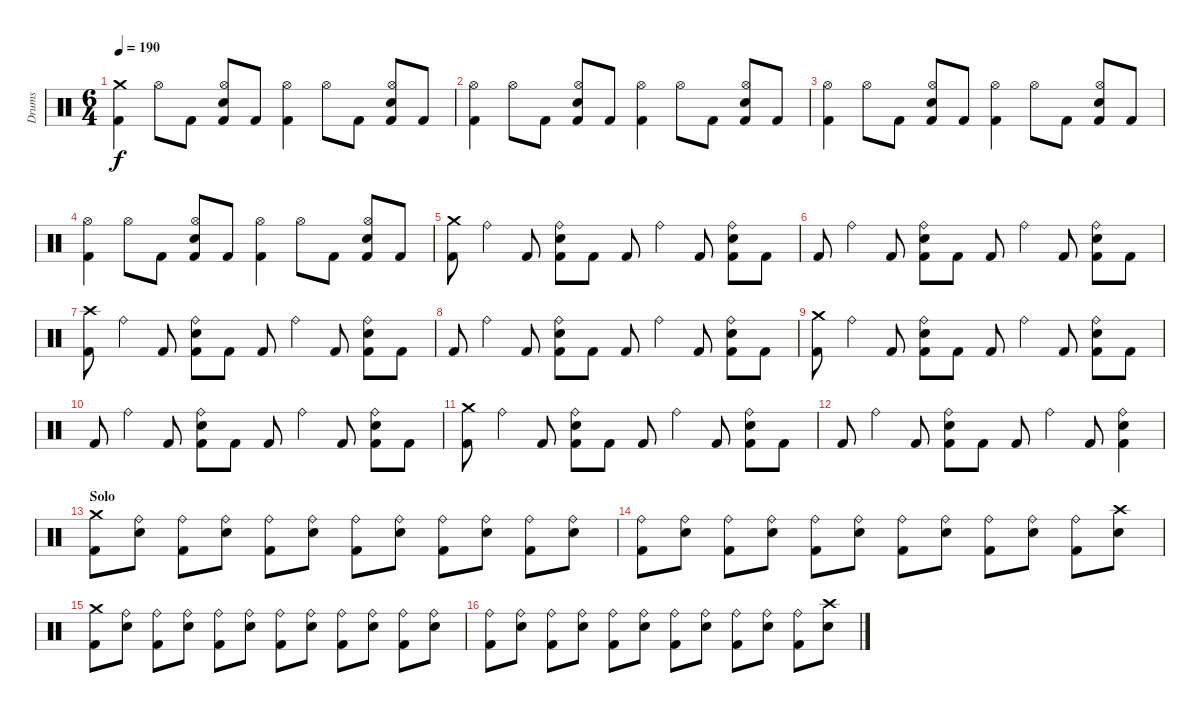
\track ("Drums" "Drums") {instrument percussion}
\staff {score}
\articulation defaults
\ts (6 4)
\tempo 190
\clef neutral
\ks c
("Crash medium (hit)" "Kick (hit) 2").4{dy f} "Hi-Hat (open)".8 "Kick (hit) 2".8 ("Hi-Hat (open)" "Snare (hit) 2" "Kick (hit) 2").8 "Kick (hit) 2".8 ("Hi-Hat (open)" "Kick (hit) 2").4 "Hi-Hat (open)".8 "Kick (hit) 2".8 ("Hi-Hat (open)" "Snare (hit) 2" "Kick (hit) 2").8 "Kick (hit) 2".8 |
("Hi-Hat (open)" "Kick (hit) 2").4 "Hi-Hat (open)".8 "Kick (hit) 2".8 ("Hi-Hat (open)" "Snare (hit) 2" "Kick (hit) 2").8 "Kick (hit) 2".8 ("Hi-Hat (open)" "Kick (hit) 2").4 "Hi-Hat (open)".8 "Kick (hit) 2".8 ("Hi-Hat (open)" "Snare (hit) 2" "Kick (hit) 2").8 "Kick (hit) 2".8 |
("Hi-Hat (open)" "Kick (hit) 2").4 "Hi-Hat (open)".8 "Kick (hit) 2".8 ("Hi-Hat (open)" "Snare (hit) 2" "Kick (hit) 2").8 "Kick (hit) 2".8 ("Hi-Hat (open)" "Kick (hit) 2").4 "Hi-Hat (open)".8 "Kick (hit) 2".8 ("Hi-Hat (open)" "Snare (hit) 2" "Kick (hit) 2").8 "Kick (hit) 2".8 |
("Hi-Hat (open)" "Kick (hit) 2").4 "Hi-Hat (open)".8 "Kick (hit) 2".8 ("Hi-Hat (open)" "Snare (hit) 2" "Kick (hit) 2").8 "Kick (hit) 2".8 ("Hi-Hat (open)" "Kick (hit) 2").4 "Hi-Hat (open)".8 "Kick (hit) 2".8 ("Hi-Hat (open)" "Snare (hit) 2" "Kick (hit) 2").8 "Kick (hit) 2".8 |
("Crash medium (hit)" "Kick (hit) 2").8 "Ride (bell)".4 "Kick (hit) 2".8 ("Ride (bell)" "Snare (hit) 2" "Kick (hit) 2").8 "Kick (hit) 2".8 "Kick (hit) 2".8 "Ride (bell)".4 "Kick (hit) 2".8 ("Ride (bell)" "Snare (hit) 2" "Kick (hit) 2").8 "Kick (hit) 2".8 |
"Kick (hit) 2".8 "Ride (bell)".4 "Kick (hit) 2".8 ("Ride (bell)" "Snare (hit) 2" "Kick (hit) 2").8 "Kick (hit) 2".8 "Kick (hit) 2".8 "Ride (bell)".4 "Kick (hit) 2".8 ("Ride (bell)" "Snare (hit) 2" "Kick (hit) 2").8 "Kick (hit) 2".8 |
("Crash high (hit)" "Kick (hit) 2").8 "Ride (bell)".4 "Kick (hit) 2".8 ("Ride (bell)" "Snare (hit) 2" "Kick (hit) 2").8 "Kick (hit) 2".8 "Kick (hit) 2".8 "Ride (bell)".4 "Kick (hit) 2".8 ("Ride (bell)" "Snare (hit) 2" "Kick (hit) 2").8 "Kick (hit) 2".8 |
"Kick (hit) 2".8 "Ride (bell)".4 "Kick (hit) 2".8 ("Ride (bell)" "Snare (hit) 2" "Kick (hit) 2").8 "Kick (hit) 2".8 "Kick (hit) 2".8 "Ride (bell)".4 "Kick (hit) 2".8 ("Ride (bell)" "Snare (hit) 2" "Kick (hit) 2").8 "Kick (hit) 2".8 |
("Crash medium (hit)" "Kick (hit) 2").8 "Ride (bell)".4 "Kick (hit) 2".8 ("Ride (bell)" "Snare (hit) 2" "Kick (hit) 2").8 "Kick (hit) 2".8 "Kick (hit) 2".8 "Ride (bell)".4 "Kick (hit) 2".8 ("Ride (bell)" "Snare (hit) 2" "Kick (hit) 2").8 "Kick (hit) 2".8 |
"Kick (hit) 2".8 "Ride (bell)".4 "Kick (hit) 2".8 ("Ride (bell)" "Snare (hit) 2" "Kick (hit) 2").8 "Kick (hit) 2".8 "Kick (hit) 2".8 "Ride (bell)".4 "Kick (hit) 2".8 ("Ride (bell)" "Snare (hit) 2" "Kick (hit) 2").8 "Kick (hit) 2".8 |
("Crash medium (hit)" "Kick (hit) 2").8 "Ride (bell)".4 "Kick (hit) 2".8 ("Ride (bell)" "Snare (hit) 2" "Kick (hit) 2").8 "Kick (hit) 2".8 "Kick (hit) 2".8 "Ride (bell)".4 "Kick (hit) 2".8 ("Ride (bell)" "Snare (hit) 2" "Kick (hit) 2").8 "Kick (hit) 2".8 |
"Kick (hit) 2".8 "Ride (bell)".4 "Kick (hit) 2".8 ("Ride (bell)" "Snare (hit) 2" "Kick (hit) 2").8 "Kick (hit) 2".8 "Kick (hit) 2".8 "Ride (bell)".4 "Kick (hit) 2".8 ("Ride (bell)" "Snare (hit) 2" "Kick (hit) 2").4 |
\section ("" "Solo")
("Crash medium (hit)" "Kick (hit) 2").8 ("Ride (bell)" "Snare (hit) 2").8 ("Ride (bell)" "Kick (hit) 2").8 ("Ride (bell)" "Snare (hit) 2").8 ("Ride (bell)" "Kick (hit) 2").8 ("Ride (bell)" "Snare (hit) 2").8 ("Ride (bell)" "Kick (hit) 2").8 ("Ride (bell)" "Snare (hit) 2").8 ("Ride (bell)" "Kick (hit) 2").8 ("Ride (bell)" "Snare (hit) 2").8 ("Ride (bell)" "Kick (hit) 2").8 ("Ride (bell)" "Snare (hit) 2").8 |
("Ride (bell)" "Kick (hit) 2").8 ("Ride (bell)" "Snare (hit) 2").8 ("Ride (bell)" "Kick (hit) 2").8 ("Ride (bell)" "Snare (hit) 2").8 ("Ride (bell)" "Kick (hit) 2").8 ("Ride (bell)" "Snare (hit) 2").8 ("Ride (bell)" "Kick (hit) 2").8 ("Ride (bell)" "Snare (hit) 2").8 ("Ride (bell)" "Kick (hit) 2").8 ("Ride (bell)" "Snare (hit) 2").8 ("Ride (bell)" "Kick (hit) 2").8 ("Crash high (hit)" "Snare (hit) 2").8 |
("Crash medium (hit)" "Kick (hit) 2").8 ("Ride (bell)" "Snare (hit) 2").8 ("Ride (bell)" "Kick (hit) 2").8 ("Ride (bell)" "Snare (hit) 2").8 ("Ride (bell)" "Kick (hit) 2").8 ("Ride (bell)" "Snare (hit) 2").8 ("Ride (bell)" "Kick (hit) 2").8 ("Ride (bell)" "Snare (hit) 2").8 ("Ride (bell)" "Kick (hit) 2").8 ("Ride (bell)" "Snare (hit) 2").8 ("Ride (bell)" "Kick (hit) 2").8 ("Ride (bell)" "Snare (hit) 2").8 |
("Ride (bell)" "Kick (hit) 2").8 ("Ride (bell)" "Snare (hit) 2").8 ("Ride (bell)" "Kick (hit) 2").8 ("Ride (bell)" "Snare (hit) 2").8 ("Ride (bell)" "Kick (hit) 2").8 ("Ride (bell)" "Snare (hit) 2").8 ("Ride (bell)" "Kick (hit) 2").8 ("Ride (bell)" "Snare (hit) 2").8 ("Ride (bell)" "Kick (hit) 2").8 ("Ride (bell)" "Snare (hit) 2").8 ("Ride (bell)" "Kick (hit) 2").8 ("Crash high (hit)" "Snare (hit) 2").8
